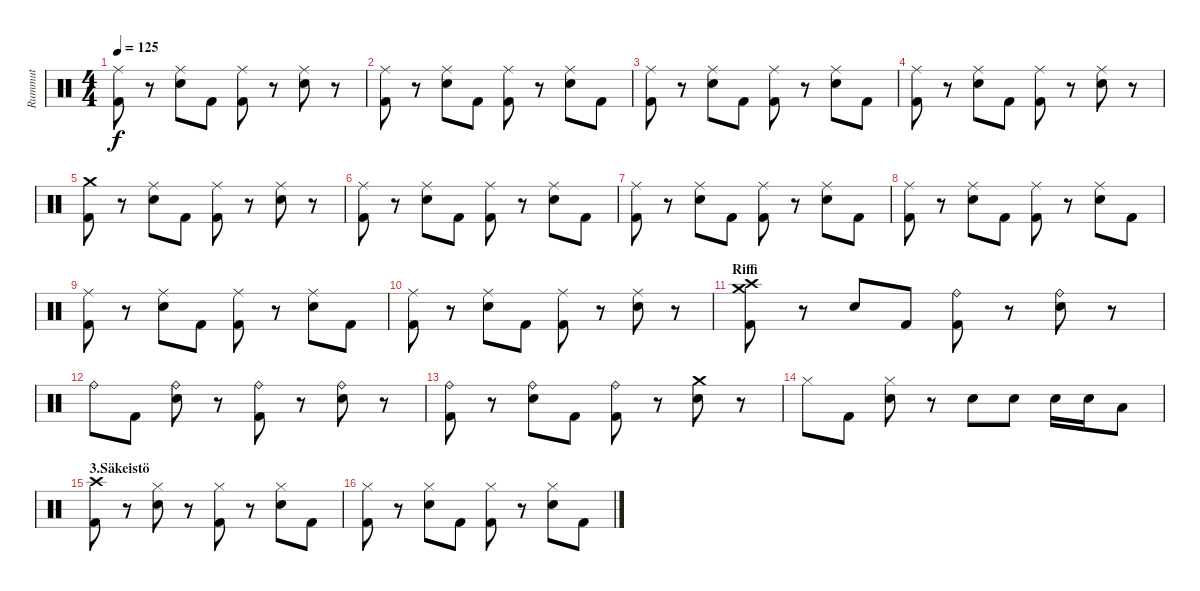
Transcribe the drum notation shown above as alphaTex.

\track ("Rummut" "Rummut") {instrument percussion}
\staff {score}
\articulation defaults
\ts (4 4)
\tempo 125
\clef neutral
\ks c
("Ride (middle)" "Kick (hit) 2").8{dy f} r.8 ("Ride (middle)" "Snare (hit) 2").8 "Kick (hit) 2".8 ("Ride (middle)" "Kick (hit) 2").8 r.8 ("Ride (middle)" "Snare (hit) 2").8 r.8 |
("Ride (middle)" "Kick (hit) 2").8 r.8 ("Ride (middle)" "Snare (hit) 2").8 "Kick (hit) 2".8 ("Ride (middle)" "Kick (hit) 2").8 r.8 ("Ride (middle)" "Snare (hit) 2").8 "Kick (hit) 2".8 |
("Ride (middle)" "Kick (hit) 2").8 r.8 ("Ride (middle)" "Snare (hit) 2").8 "Kick (hit) 2".8 ("Ride (middle)" "Kick (hit) 2").8 r.8 ("Ride (middle)" "Snare (hit) 2").8 "Kick (hit) 2".8 |
("Ride (middle)" "Kick (hit) 2").8 r.8 ("Ride (middle)" "Snare (hit) 2").8 "Kick (hit) 2".8 ("Ride (middle)" "Kick (hit) 2").8 r.8 ("Ride (middle)" "Snare (hit) 2").8 r.8 |
("Crash medium (hit)" "Kick (hit) 2").8 r.8 ("Ride (middle)" "Snare (hit) 2").8 "Kick (hit) 2".8 ("Ride (middle)" "Kick (hit) 2").8 r.8 ("Ride (middle)" "Snare (hit) 2").8 r.8 |
("Ride (middle)" "Kick (hit) 2").8 r.8 ("Ride (middle)" "Snare (hit) 2").8 "Kick (hit) 2".8 ("Ride (middle)" "Kick (hit) 2").8 r.8 ("Ride (middle)" "Snare (hit) 2").8 "Kick (hit) 2".8 |
("Ride (middle)" "Kick (hit) 2").8 r.8 ("Ride (middle)" "Snare (hit) 2").8 "Kick (hit) 2".8 ("Ride (middle)" "Kick (hit) 2").8 r.8 ("Ride (middle)" "Snare (hit) 2").8 "Kick (hit) 2".8 |
("Ride (middle)" "Kick (hit) 2").8 r.8 ("Ride (middle)" "Snare (hit) 2").8 "Kick (hit) 2".8 ("Ride (middle)" "Kick (hit) 2").8 r.8 ("Ride (middle)" "Snare (hit) 2").8 "Kick (hit) 2".8 |
("Ride (middle)" "Kick (hit) 2").8 r.8 ("Ride (middle)" "Snare (hit) 2").8 "Kick (hit) 2".8 ("Ride (middle)" "Kick (hit) 2").8 r.8 ("Ride (middle)" "Snare (hit) 2").8 "Kick (hit) 2".8 |
("Ride (middle)" "Kick (hit) 2").8 r.8 ("Ride (middle)" "Snare (hit) 2").8 "Kick (hit) 2".8 ("Ride (middle)" "Kick (hit) 2").8 r.8 ("Ride (middle)" "Snare (hit) 2").8 r.8 |
\section ("" "Riffi")
("Crash high (hit)" "Crash medium (hit)" "Kick (hit) 2").8 r.8 "Snare (hit) 2".8 "Kick (hit) 2".8 ("Ride (bell)" "Kick (hit) 2").8 r.8 ("Ride (bell)" "Snare (hit) 2").8 r.8 |
"Ride (bell)".8 "Kick (hit) 2".8 ("Ride (bell)" "Snare (hit) 2").8 r.8 ("Ride (bell)" "Kick (hit) 2").8 r.8 ("Ride (bell)" "Snare (hit) 2").8 r.8 |
("Ride (bell)" "Kick (hit) 2").8 r.8 ("Ride (bell)" "Snare (hit) 2").8 "Kick (hit) 2".8 ("Ride (bell)" "Kick (hit) 2").8 r.8 ("Crash medium (hit)" "Snare (hit) 2").8 r.8 |
"Hi-Hat (closed)".8 "Kick (hit) 2".8 ("Hi-Hat (closed)" "Snare (hit) 2").8 r.8 "Snare (hit) 2".8 "Snare (hit) 2".8 "Snare (hit) 2".16 "Snare (hit) 2".16 "Low Tom (hit)".8 |
\section ("" "3.Säkeistö")
("Crash high (hit)" "Kick (hit) 2").8 r.8 ("Hi-Hat (closed)" "Snare (hit) 2").8 r.8 ("Hi-Hat (closed)" "Kick (hit) 2").8 r.8 ("Hi-Hat (closed)" "Snare (hit) 2").8 "Kick (hit) 2".8 |
("Hi-Hat (closed)" "Kick (hit) 2").8 r.8 ("Hi-Hat (closed)" "Snare (hit) 2").8 "Kick (hit) 2".8 ("Hi-Hat (closed)" "Kick (hit) 2").8 r.8 ("Hi-Hat (closed)" "Snare (hit) 2").8 "Kick (hit) 2".8
